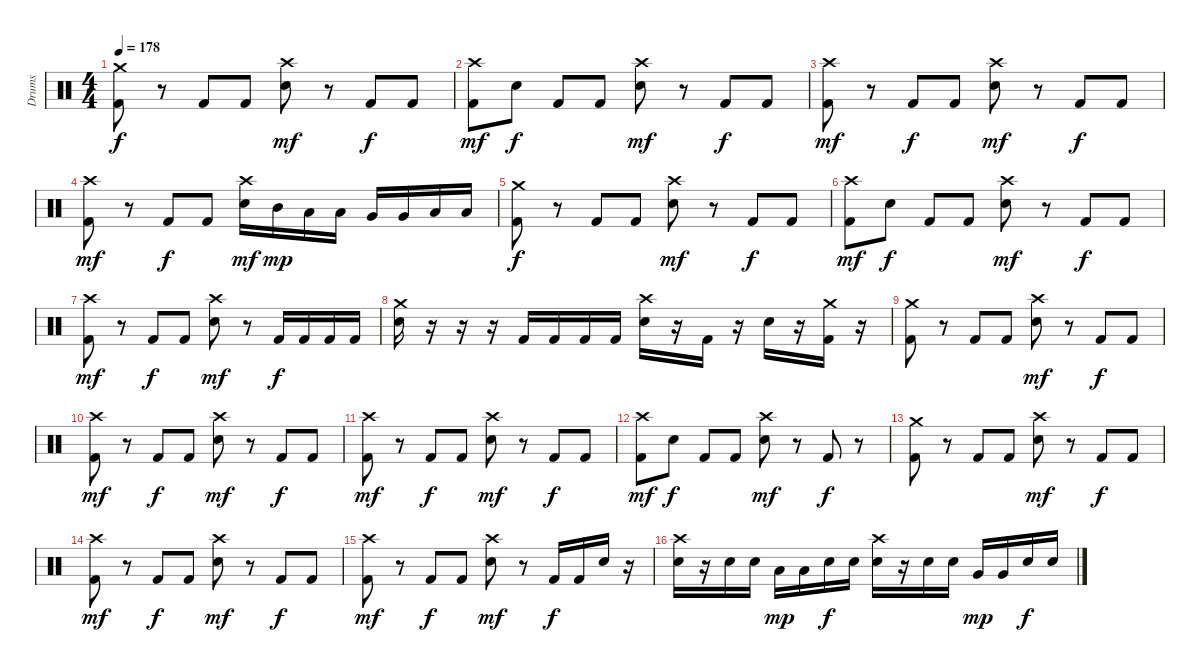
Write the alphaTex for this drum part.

\track ("Drums" "Drums") {instrument percussion}
\staff {score}
\articulation defaults
\ts (4 4)
\tempo 178
\clef neutral
\ks c
("Crash medium (hit)" "Kick (hit) 2").8{dy f} r.8 "Kick (hit) 2".8 "Kick (hit) 2".8 ("Crash high (hit)" "Snare (hit) 2").8{dy mf} r.8 "Kick (hit) 2".8{dy f} "Kick (hit) 2".8 |
("Crash high (hit)" "Kick (hit) 2").8{dy mf} "Snare (hit) 2".8{dy f} "Kick (hit) 2".8 "Kick (hit) 2".8 ("Crash high (hit)" "Snare (hit) 2").8{dy mf} r.8 "Kick (hit) 2".8{dy f} "Kick (hit) 2".8 |
("Crash high (hit)" "Kick (hit) 2").8{dy mf} r.8 "Kick (hit) 2".8{dy f} "Kick (hit) 2".8 ("Crash high (hit)" "Snare (hit) 2").8{dy mf} r.8 "Kick (hit) 2".8{dy f} "Kick (hit) 2".8 |
("Crash high (hit)" "Kick (hit) 2").8{dy mf} r.8 "Kick (hit) 2".8{dy f} "Kick (hit) 2".8 ("Crash high (hit)" "Snare (hit) 2").16{dy mf} "Mid Tom (hit)".16{dy mp} "Low Tom (hit)".16 "Low Tom (hit)".16 "Very Low Tom (hit)".16 "Very Low Tom (hit)".16 "Low Floor Tom (hit)".16 "Low Floor Tom (hit)".16 |
("Crash medium (hit)" "Kick (hit) 2").8{dy f} r.8 "Kick (hit) 2".8 "Kick (hit) 2".8 ("Crash high (hit)" "Snare (hit) 2").8{dy mf} r.8 "Kick (hit) 2".8{dy f} "Kick (hit) 2".8 |
("Crash high (hit)" "Kick (hit) 2").8{dy mf} "Snare (hit) 2".8{dy f} "Kick (hit) 2".8 "Kick (hit) 2".8 ("Crash high (hit)" "Snare (hit) 2").8{dy mf} r.8 "Kick (hit) 2".8{dy f} "Kick (hit) 2".8 |
("Crash high (hit)" "Kick (hit) 2").8{dy mf} r.8 "Kick (hit) 2".8{dy f} "Kick (hit) 2".8 ("Crash high (hit)" "Snare (hit) 2").8{dy mf} r.8 "Kick (hit) 2".16{dy f} "Kick (hit) 2".16 "Kick (hit) 2".16 "Kick (hit) 2".16 |
("Crash medium (hit)" "Snare (hit) 2").16 r.16 r.16 r.16 "Kick (hit) 2".16 "Kick (hit) 2".16 "Kick (hit) 2".16 "Kick (hit) 2".16 ("Crash high (hit)" "Snare (hit) 2").16 r.16 "Kick (hit) 2".16 r.16 "Snare (hit) 2".16 r.16 ("Crash medium (hit)" "Kick (hit) 2").16 r.16 |
("Crash medium (hit)" "Kick (hit) 2").8 r.8 "Kick (hit) 2".8 "Kick (hit) 2".8 ("Crash high (hit)" "Snare (hit) 2").8{dy mf} r.8 "Kick (hit) 2".8{dy f} "Kick (hit) 2".8 |
("Crash high (hit)" "Kick (hit) 2").8{dy mf} r.8 "Kick (hit) 2".8{dy f} "Kick (hit) 2".8 ("Crash high (hit)" "Snare (hit) 2").8{dy mf} r.8 "Kick (hit) 2".8{dy f} "Kick (hit) 2".8 |
("Crash high (hit)" "Kick (hit) 2").8{dy mf} r.8 "Kick (hit) 2".8{dy f} "Kick (hit) 2".8 ("Crash high (hit)" "Snare (hit) 2").8{dy mf} r.8 "Kick (hit) 2".8{dy f} "Kick (hit) 2".8 |
("Crash high (hit)" "Kick (hit) 2").8{dy mf} "Snare (hit) 2".8{dy f} "Kick (hit) 2".8 "Kick (hit) 2".8 ("Crash high (hit)" "Snare (hit) 2").8{dy mf} r.8 "Kick (hit) 2".8{dy f} r.8 |
("Crash medium (hit)" "Kick (hit) 2").8 r.8 "Kick (hit) 2".8 "Kick (hit) 2".8 ("Crash high (hit)" "Snare (hit) 2").8{dy mf} r.8 "Kick (hit) 2".8{dy f} "Kick (hit) 2".8 |
("Crash high (hit)" "Kick (hit) 2").8{dy mf} r.8 "Kick (hit) 2".8{dy f} "Kick (hit) 2".8 ("Crash high (hit)" "Snare (hit) 2").8{dy mf} r.8 "Kick (hit) 2".8{dy f} "Kick (hit) 2".8 |
("Crash high (hit)" "Kick (hit) 2").8{dy mf} r.8 "Kick (hit) 2".8{dy f} "Kick (hit) 2".8 ("Crash high (hit)" "Snare (hit) 2").8{dy mf} r.8 "Kick (hit) 2".16{dy f} "Kick (hit) 2".16 "Snare (hit) 2".16 r.16 |
("Crash high (hit)" "Snare (hit) 2").16 r.16 "Snare (hit) 2".16 "Snare (hit) 2".16 "Low Tom (hit)".16{dy mp} "Low Tom (hit)".16 "Snare (hit) 2".16{dy f} "Snare (hit) 2".16 ("Crash high (hit)" "Snare (hit) 2").16 r.16 "Snare (hit) 2".16 "Snare (hit) 2".16 "Very Low Tom (hit)".16{dy mp} "Very Low Tom (hit)".16 "Snare (hit) 2".16{dy f} "Snare (hit) 2".16
